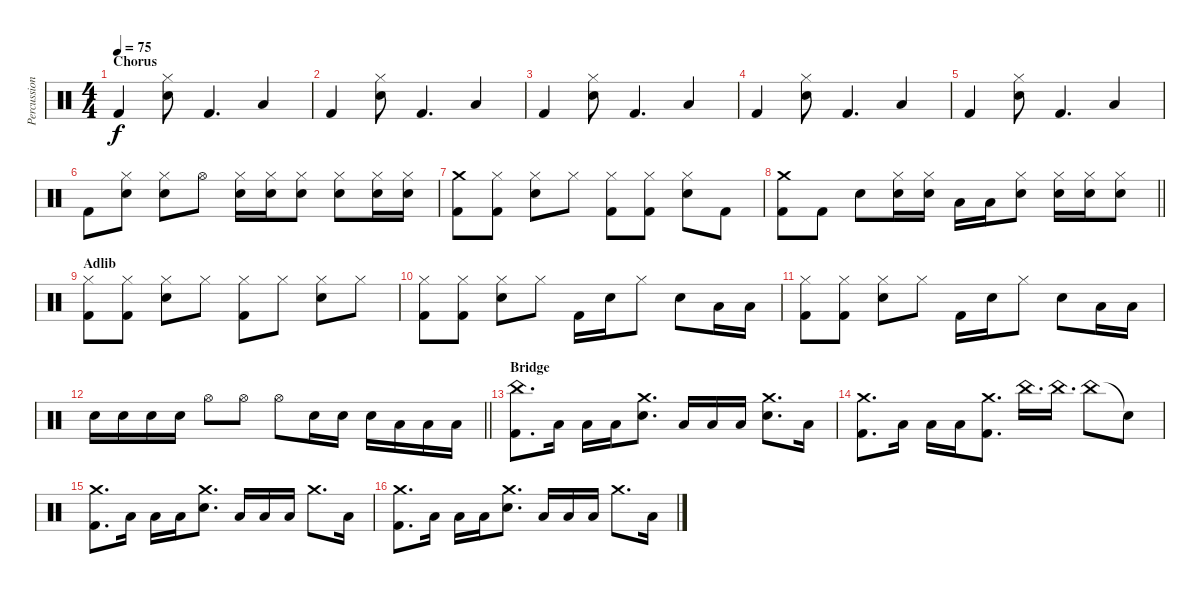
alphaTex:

\track ("Percussion (Lemuel)" "Percussion") {instrument percussion}
\staff {score}
\articulation defaults
\ts (4 4)
\section ("" "Chorus")
\tempo 75
\clef neutral
\ks c "Kick (hit) 2".4{dy f}
("Electric Snare (hit)" "Hi-Hat (closed)").8 "Kick (hit) 2".4{d} "Low Tom (hit)".4 |
"Kick (hit) 2".4 ("Electric Snare (hit)" "Hi-Hat (closed)").8 "Kick (hit) 2".4{d} "Low Tom (hit)".4 |
"Kick (hit) 2".4 ("Electric Snare (hit)" "Hi-Hat (closed)").8 "Kick (hit) 2".4{d} "Low Tom (hit)".4 |
"Kick (hit) 2".4 ("Electric Snare (hit)" "Hi-Hat (closed)").8 "Kick (hit) 2".4{d} "Low Tom (hit)".4 |
"Kick (hit) 2".4 ("Electric Snare (hit)" "Hi-Hat (closed)").8 "Kick (hit) 2".4{d} "Low Tom (hit)".4 |
"Kick (hit) 2".8 ("Electric Snare (hit)" "Hi-Hat (closed)").8 ("Electric Snare (hit)" "Hi-Hat (closed)").8 "Hi-Hat (open)".8 ("Electric Snare (hit)" "Hi-Hat (closed)").16 ("Electric Snare (hit)" "Hi-Hat (closed)").16 ("Electric Snare (hit)" "Hi-Hat (closed)").8 ("Electric Snare (hit)" "Hi-Hat (closed)").8 ("Electric Snare (hit)" "Hi-Hat (closed)").16 ("Electric Snare (hit)" "Hi-Hat (closed)").16 |
("Kick (hit) 2" "Crash medium (hit)").8 ("Kick (hit) 2" "Hi-Hat (closed)").8 ("Electric Snare (hit)" "Hi-Hat (closed)").8 "Hi-Hat (closed)".8 ("Kick (hit) 2" "Hi-Hat (closed)").8 ("Kick (hit) 2" "Hi-Hat (closed)").8 ("Electric Snare (hit)" "Hi-Hat (closed)").8 "Kick (hit) 2".8 |
\barLineRight lightlight
("Kick (hit) 2" "Crash medium (hit)").8 "Kick (hit) 2".8 "Electric Snare (hit)".8 ("Electric Snare (hit)" "Hi-Hat (closed)").16 ("Electric Snare (hit)" "Hi-Hat (closed)").16 "Low Tom (hit)".16 "Low Tom (hit)".16 ("Electric Snare (hit)" "Hi-Hat (closed)").8 ("Electric Snare (hit)" "Hi-Hat (closed)").16 ("Electric Snare (hit)" "Hi-Hat (closed)").16 ("Electric Snare (hit)" "Hi-Hat (closed)").8 |
\section ("" "Adlib")
("Hi-Hat (closed)" "Kick (hit) 2").8 ("Hi-Hat (closed)" "Kick (hit) 2").8 ("Hi-Hat (closed)" "Electric Snare (hit)").8 "Hi-Hat (closed)".8 ("Hi-Hat (closed)" "Kick (hit) 2").8 "Hi-Hat (closed)".8 ("Hi-Hat (closed)" "Electric Snare (hit)").8 "Hi-Hat (closed)".8 |
("Hi-Hat (closed)" "Kick (hit) 2").8 ("Hi-Hat (closed)" "Kick (hit) 2").8 ("Hi-Hat (closed)" "Electric Snare (hit)").8 "Hi-Hat (closed)".8 "Kick (hit) 2".16 "Electric Snare (hit)".16 "Hi-Hat (closed)".8 "Electric Snare (hit)".8 "Low Tom (hit)".16 "Low Tom (hit)".16 |
("Hi-Hat (closed)" "Kick (hit) 2").8 ("Hi-Hat (closed)" "Kick (hit) 2").8 ("Hi-Hat (closed)" "Electric Snare (hit)").8 "Hi-Hat (closed)".8 "Kick (hit) 2".16 "Electric Snare (hit)".16 "Hi-Hat (closed)".8 "Electric Snare (hit)".8 "Low Tom (hit)".16 "Low Tom (hit)".16 |
\barLineRight lightlight "Electric Snare (hit)".16 "Electric Snare (hit)".16 "Electric Snare (hit)".16 "Electric Snare (hit)".16 "Hi-Hat (open)".8 "Hi-Hat (open)".8 "Hi-Hat (open)".8 "Electric Snare (hit)".16 "Electric Snare (hit)".16 "Electric Snare (hit)".16 "Low Tom (hit)".16 "Low Tom (hit)".16 "Low Tom (hit)".16
|
\section ("" "Bridge")
("China (hit)" "Kick (hit) 2").8{d} "Low Tom (hit)".16 "Low Tom (hit)".16 "Low Tom (hit)".16 ("Crash medium (hit)" "Electric Snare (hit)").8{d} "Low Tom (hit)".16 "Low Tom (hit)".16 "Low Tom (hit)".16 ("Crash medium (hit)" "Electric Snare (hit)").8{d} "Low Tom (hit)".16 |
("Crash medium (hit)" "Kick (hit) 2").8{d} "Low Tom (hit)".16 "Low Tom (hit)".16 "Low Tom (hit)".16 ("Crash medium (hit)" "Kick (hit) 2").8{d} "China (hit)".16{d} "China (hit)".16{d} "China (hit)".8 "Electric Snare (hit)"{t}.8 |
("Crash medium (hit)" "Kick (hit) 2").8{d} "Low Tom (hit)".16 "Low Tom (hit)".16 "Low Tom (hit)".16 ("Crash medium (hit)" "Electric Snare (hit)").8{d} "Low Tom (hit)".16 "Low Tom (hit)".16 "Low Tom (hit)".16 "Crash medium (hit)".8{d} "Low Tom (hit)".16 |
("Crash medium (hit)" "Kick (hit) 2").8{d} "Low Tom (hit)".16 "Low Tom (hit)".16 "Low Tom (hit)".16 ("Crash medium (hit)" "Electric Snare (hit)").8{d} "Low Tom (hit)".16 "Low Tom (hit)".16 "Low Tom (hit)".16 "Crash medium (hit)".8{d} "Low Tom (hit)".16
